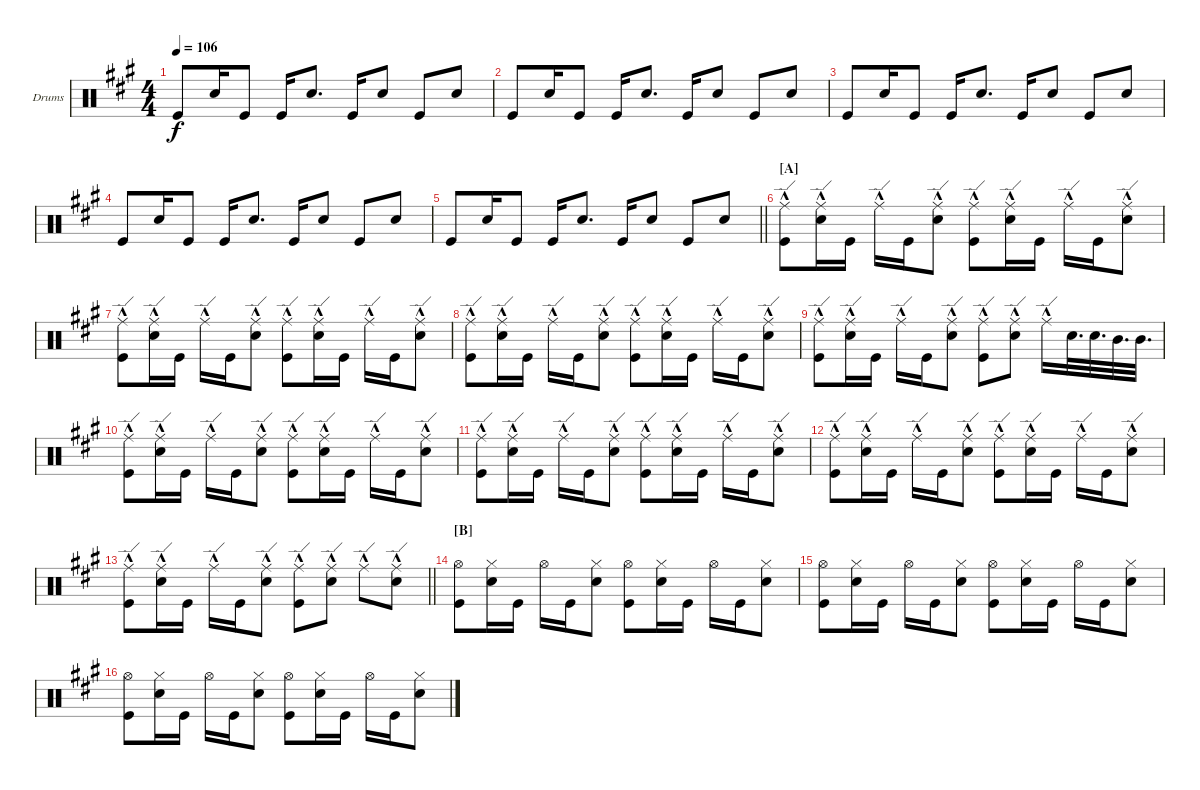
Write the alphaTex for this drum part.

\bracketExtendMode groupsimilarinstruments
\firstSystemTrackNameOrientation horizontal
\otherSystemsTrackNameOrientation horizontal
\track ("Fabrizio Moretti" "Drums") {instrument percussion}
\staff {score}
\articulation defaults
\ts (4 4)
\tempo 106
\clef neutral
\ks a "Kick (hit)".8{dy f} "Snare (hit) 2".16 "Kick (hit)".8 "Kick (hit)".16 "Snare (hit) 2".8{d} "Kick (hit)".16 "Snare (hit) 2".8 "Kick (hit)".8 "Snare (hit) 2".8
|
"Kick (hit)".8 "Snare (hit) 2".16 "Kick (hit)".8 "Kick (hit)".16 "Snare (hit) 2".8{d} "Kick (hit)".16 "Snare (hit) 2".8 "Kick (hit)".8 "Snare (hit) 2".8 |
"Kick (hit)".8 "Snare (hit) 2".16 "Kick (hit)".8 "Kick (hit)".16 "Snare (hit) 2".8{d} "Kick (hit)".16 "Snare (hit) 2".8 "Kick (hit)".8 "Snare (hit) 2".8 |
"Kick (hit)".8 "Snare (hit) 2".16 "Kick (hit)".8 "Kick (hit)".16 "Snare (hit) 2".8{d} "Kick (hit)".16 "Snare (hit) 2".8 "Kick (hit)".8 "Snare (hit) 2".8 |
\barLineRight lightlight "Kick (hit)".8 "Snare (hit) 2".16 "Kick (hit)".8 "Kick (hit)".16 "Snare (hit) 2".8{d} "Kick (hit)".16 "Snare (hit) 2".8 "Kick (hit)".8 "Snare (hit) 2".8
|
\section ("A" "")
("Ride (edge)"{hac} "Kick (hit)").8 ("Ride (edge)"{hac} "Snare (hit) 2").16 "Kick (hit)".16 "Ride (edge)"{hac}.16 "Kick (hit)".16 ("Ride (edge)"{hac} "Snare (hit) 2").8 ("Ride (edge)"{hac} "Kick (hit)").8 ("Ride (edge)"{hac} "Snare (hit) 2").16 "Kick (hit)".16 "Ride (edge)"{hac}.16 "Kick (hit)".16 ("Ride (edge)"{hac} "Snare (hit) 2").8 |
("Ride (edge)"{hac} "Kick (hit)").8 ("Ride (edge)"{hac} "Snare (hit) 2").16 "Kick (hit)".16 "Ride (edge)"{hac}.16 "Kick (hit)".16 ("Ride (edge)"{hac} "Snare (hit) 2").8 ("Ride (edge)"{hac} "Kick (hit)").8 ("Ride (edge)"{hac} "Snare (hit) 2").16 "Kick (hit)".16 "Ride (edge)"{hac}.16 "Kick (hit)".16 ("Ride (edge)"{hac} "Snare (hit) 2").8 |
("Ride (edge)"{hac} "Kick (hit)").8 ("Ride (edge)"{hac} "Snare (hit) 2").16 "Kick (hit)".16 "Ride (edge)"{hac}.16 "Kick (hit)".16 ("Ride (edge)"{hac} "Snare (hit) 2").8 ("Ride (edge)"{hac} "Kick (hit)").8 ("Ride (edge)"{hac} "Snare (hit) 2").16 "Kick (hit)".16 "Ride (edge)"{hac}.16 "Kick (hit)".16 ("Ride (edge)"{hac} "Snare (hit) 2").8 |
("Ride (edge)"{hac} "Kick (hit)").8 ("Ride (edge)"{hac} "Snare (hit) 2").16 "Kick (hit)".16 "Ride (edge)"{hac}.16 "Kick (hit)".16 ("Ride (edge)"{hac} "Snare (hit) 2").8 ("Ride (edge)"{hac} "Kick (hit)").8 ("Ride (edge)"{hac} "Snare (hit) 2").8 "Ride (edge)"{hac}.16 "Snare (hit) 2".32{d} "Snare (hit) 2".32{d} "Mid Tom (hit)".32{d} "Mid Tom (hit)".32{d} |
("Ride (edge)"{hac} "Kick (hit)").8 ("Ride (edge)"{hac} "Snare (hit) 2").16 "Kick (hit)".16 "Ride (edge)"{hac}.16 "Kick (hit)".16 ("Ride (edge)"{hac} "Snare (hit) 2").8 ("Ride (edge)"{hac} "Kick (hit)").8 ("Ride (edge)"{hac} "Snare (hit) 2").16 "Kick (hit)".16 "Ride (edge)"{hac}.16 "Kick (hit)".16 ("Ride (edge)"{hac} "Snare (hit) 2").8 |
("Ride (edge)"{hac} "Kick (hit)").8 ("Ride (edge)"{hac} "Snare (hit) 2").16 "Kick (hit)".16 "Ride (edge)"{hac}.16 "Kick (hit)".16 ("Ride (edge)"{hac} "Snare (hit) 2").8 ("Ride (edge)"{hac} "Kick (hit)").8 ("Ride (edge)"{hac} "Snare (hit) 2").16 "Kick (hit)".16 "Ride (edge)"{hac}.16 "Kick (hit)".16 ("Ride (edge)"{hac} "Snare (hit) 2").8 |
("Ride (edge)"{hac} "Kick (hit)").8 ("Ride (edge)"{hac} "Snare (hit) 2").16 "Kick (hit)".16 "Ride (edge)"{hac}.16 "Kick (hit)".16 ("Ride (edge)"{hac} "Snare (hit) 2").8 ("Ride (edge)"{hac} "Kick (hit)").8 ("Ride (edge)"{hac} "Snare (hit) 2").16 "Kick (hit)".16 "Ride (edge)"{hac}.16 "Kick (hit)".16 ("Ride (edge)"{hac} "Snare (hit) 2").8 |
\barLineRight lightlight
("Ride (edge)"{hac} "Kick (hit)").8 ("Ride (edge)"{hac} "Snare (hit) 2").16 "Kick (hit)".16 "Ride (edge)"{hac}.16 "Kick (hit)".16 ("Ride (edge)"{hac} "Snare (hit) 2").8 ("Ride (edge)"{hac} "Kick (hit)").8 ("Ride (edge)"{hac} "Snare (hit) 2").8 "Ride (edge)"{hac}.8 ("Ride (edge)"{hac} "Snare (hit) 2").8 |
\section ("B" "")
("Hi-Hat (open)" "Kick (hit)").8 ("Hi-Hat (closed)" "Snare (hit) 2").16 "Kick (hit)".16 "Hi-Hat (open)".16 "Kick (hit)".16 ("Hi-Hat (closed)" "Snare (hit) 2").8 ("Hi-Hat (open)" "Kick (hit)").8 ("Hi-Hat (closed)" "Snare (hit) 2").16 "Kick (hit)".16 "Hi-Hat (open)".16 "Kick (hit)".16 ("Hi-Hat (closed)" "Snare (hit) 2").8 |
("Hi-Hat (open)" "Kick (hit)").8 ("Hi-Hat (closed)" "Snare (hit) 2").16 "Kick (hit)".16 "Hi-Hat (open)".16 "Kick (hit)".16 ("Hi-Hat (closed)" "Snare (hit) 2").8 ("Hi-Hat (open)" "Kick (hit)").8 ("Hi-Hat (closed)" "Snare (hit) 2").16 "Kick (hit)".16 "Hi-Hat (open)".16 "Kick (hit)".16 ("Hi-Hat (closed)" "Snare (hit) 2").8 |
("Hi-Hat (open)" "Kick (hit)").8 ("Hi-Hat (closed)" "Snare (hit) 2").16 "Kick (hit)".16 "Hi-Hat (open)".16 "Kick (hit)".16 ("Hi-Hat (closed)" "Snare (hit) 2").8 ("Hi-Hat (open)" "Kick (hit)").8 ("Hi-Hat (closed)" "Snare (hit) 2").16 "Kick (hit)".16 "Hi-Hat (open)".16 "Kick (hit)".16 ("Hi-Hat (closed)" "Snare (hit) 2").8
